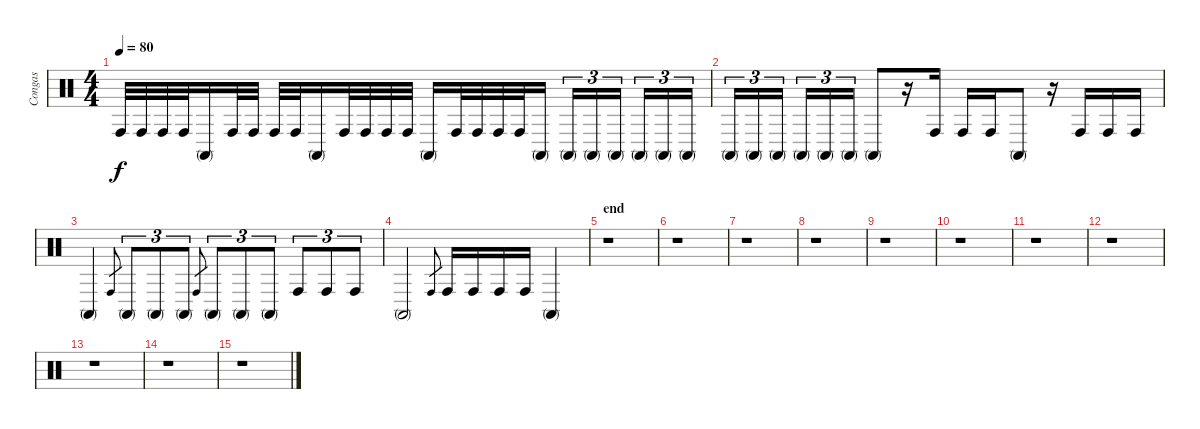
\track ("Congas" "Congas") {instrument percussion}
\staff {score}
\articulation defaults
\ts (4 4)
\tempo 80
\clef neutral
\ks c "Conga high (hit)".32{dy f} "Conga high (hit)".32 "Conga high (hit)".32 "Conga high (hit)".32 "Conga high (mute)".16 "Conga high (hit)".32 "Conga high (hit)".32 "Conga high (hit)".32 "Conga high (hit)".32 "Conga high (mute)".16 "Conga high (hit)".32 "Conga high (hit)".32 "Conga high (hit)".32 "Conga high (hit)".32 "Conga high (mute)".16 "Conga high (hit)".32 "Conga high (hit)".32 "Conga high (hit)".32 "Conga high (hit)".32 "Conga high (mute)".16 "Conga high (mute)".16{tu (3 2)} "Conga high (mute)".16{tu (3 2)} "Conga high (mute)".16{tu (3 2)} "Conga high (mute)".16{tu (3 2)} "Conga high (mute)".16{tu (3 2)} "Conga high (mute)".16{tu (3 2)}
|
"Conga high (mute)".16{tu (3 2)} "Conga high (mute)".16{tu (3 2)} "Conga high (mute)".16{tu (3 2)} "Conga high (mute)".16{tu (3 2)} "Conga high (mute)".16{tu (3 2)} "Conga high (mute)".16{tu (3 2)} "Conga high (mute)".8 r.16 "Conga high (hit)".16 "Conga high (hit)".16 "Conga high (hit)".16 "Conga high (mute)".8 r.16 "Conga high (hit)".16 "Conga high (hit)".16 "Conga high (hit)".16 |
"Conga high (mute)".4 "Conga high (hit)".8{gr} "Conga high (mute)".8{tu (3 2)} "Conga high (mute)".8{tu (3 2)} "Conga high (mute)".8{tu (3 2)} "Conga high (hit)".8{gr} "Conga high (mute)".8{tu (3 2)} "Conga high (mute)".8{tu (3 2)} "Conga high (mute)".8{tu (3 2)} "Conga high (hit)".8{tu (3 2)} "Conga high (hit)".8{tu (3 2)} "Conga high (hit)".8{tu (3 2)} |
"Conga high (mute)".2 "Conga high (hit)".8{gr} "Conga high (hit)".16 "Conga high (hit)".16 "Conga high (hit)".16 "Conga high (hit)".16 "Conga high (mute)".4 |
\section ("" "end")
r.1 |
r.1 |
r.1 |
r.1 |
r.1 |
r.1 |
r.1 |
r.1 |
r.1 |
r.1 |
r.1
